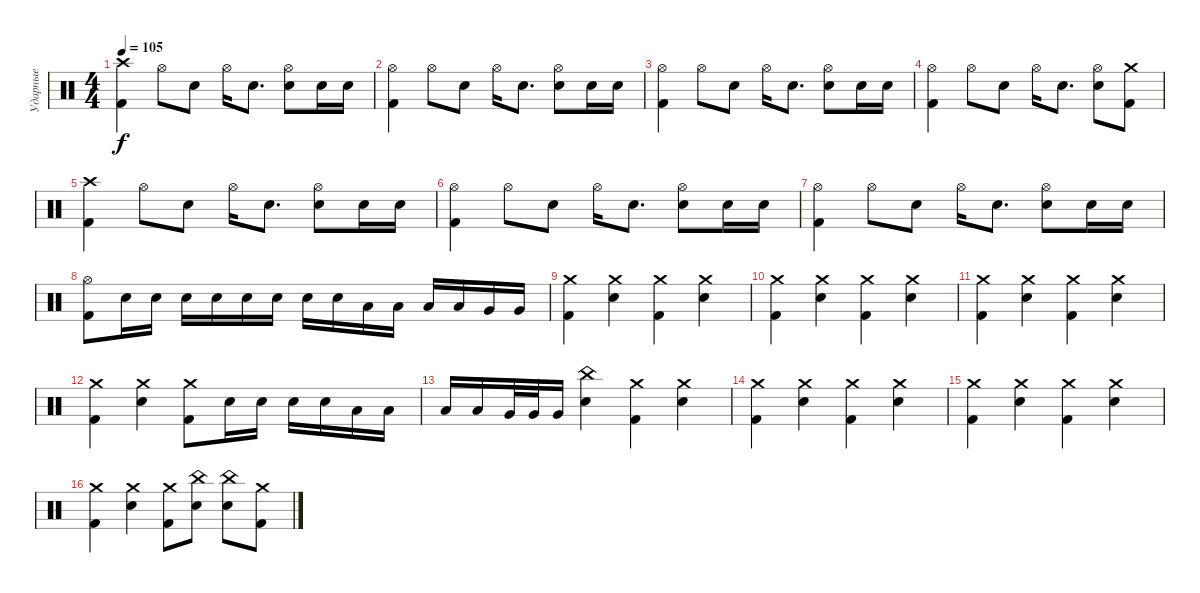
\track ("Ударные" "Ударные") {instrument percussion}
\staff {score}
\articulation defaults
\ts (4 4)
\tempo 105
\clef neutral
\ks c
("Crash high (hit)" "Kick (hit) 2").4{dy f} "Hi-Hat (open)".8 "Electric Snare (hit)".8 "Hi-Hat (open)".16 "Electric Snare (hit)".8{d} ("Hi-Hat (open)" "Electric Snare (hit)").8 "Electric Snare (hit)".16 "Electric Snare (hit)".16 |
("Hi-Hat (open)" "Kick (hit) 2").4 "Hi-Hat (open)".8 "Electric Snare (hit)".8 "Hi-Hat (open)".16 "Electric Snare (hit)".8{d} ("Hi-Hat (open)" "Electric Snare (hit)").8 "Electric Snare (hit)".16 "Electric Snare (hit)".16 |
("Hi-Hat (open)" "Kick (hit) 2").4 "Hi-Hat (open)".8 "Electric Snare (hit)".8 "Hi-Hat (open)".16 "Electric Snare (hit)".8{d} ("Hi-Hat (open)" "Electric Snare (hit)").8 "Electric Snare (hit)".16 "Electric Snare (hit)".16 |
("Hi-Hat (open)" "Kick (hit) 2").4 "Hi-Hat (open)".8 "Electric Snare (hit)".8 "Hi-Hat (open)".16 "Electric Snare (hit)".8{d} ("Hi-Hat (open)" "Electric Snare (hit)").8 ("Crash medium (hit)" "Kick (hit) 2").8 |
("Crash high (hit)" "Kick (hit) 2").4 "Hi-Hat (open)".8 "Electric Snare (hit)".8 "Hi-Hat (open)".16 "Electric Snare (hit)".8{d} ("Hi-Hat (open)" "Electric Snare (hit)").8 "Electric Snare (hit)".16 "Electric Snare (hit)".16 |
("Hi-Hat (open)" "Kick (hit) 2").4 "Hi-Hat (open)".8 "Electric Snare (hit)".8 "Hi-Hat (open)".16 "Electric Snare (hit)".8{d} ("Hi-Hat (open)" "Electric Snare (hit)").8 "Electric Snare (hit)".16 "Electric Snare (hit)".16 |
("Hi-Hat (open)" "Kick (hit) 2").4 "Hi-Hat (open)".8 "Electric Snare (hit)".8 "Hi-Hat (open)".16 "Electric Snare (hit)".8{d} ("Hi-Hat (open)" "Electric Snare (hit)").8 "Electric Snare (hit)".16 "Electric Snare (hit)".16 |
("Hi-Hat (open)" "Kick (hit) 2").8 "Electric Snare (hit)".16 "Electric Snare (hit)".16 "Electric Snare (hit)".16 "Electric Snare (hit)".16 "Electric Snare (hit)".16 "Electric Snare (hit)".16 "Electric Snare (hit)".16 "Electric Snare (hit)".16 "Low Tom (hit)".16 "Low Tom (hit)".16 "Low Tom (hit)".16 "Low Tom (hit)".16 "Very Low Tom (hit)".16 "Very Low Tom (hit)".16 |
("Crash medium (hit)" "Kick (hit) 2").4 ("Crash medium (hit)" "Electric Snare (hit)").4 ("Crash medium (hit)" "Kick (hit) 2").4 ("Crash medium (hit)" "Electric Snare (hit)").4 |
("Crash medium (hit)" "Kick (hit) 2").4 ("Crash medium (hit)" "Electric Snare (hit)").4 ("Crash medium (hit)" "Kick (hit) 2").4 ("Crash medium (hit)" "Electric Snare (hit)").4 |
("Crash medium (hit)" "Kick (hit) 2").4 ("Crash medium (hit)" "Electric Snare (hit)").4 ("Crash medium (hit)" "Kick (hit) 2").4 ("Crash medium (hit)" "Electric Snare (hit)").4 |
("Crash medium (hit)" "Kick (hit) 2").4 ("Crash medium (hit)" "Electric Snare (hit)").4 ("Crash medium (hit)" "Kick (hit) 2").8 "Electric Snare (hit)".16 "Electric Snare (hit)".16 "Electric Snare (hit)".16 "Electric Snare (hit)".16 "Low Tom (hit)".16 "Low Tom (hit)".16 |
"Low Tom (hit)".16 "Low Tom (hit)".16 "Very Low Tom (hit)".32 "Very Low Tom (hit)".32 "Very Low Tom (hit)".16 ("China (hit)" "Electric Snare (hit)").4 ("Crash medium (hit)" "Kick (hit) 2").4 ("Crash medium (hit)" "Electric Snare (hit)").4 |
("Crash medium (hit)" "Kick (hit) 2").4 ("Crash medium (hit)" "Electric Snare (hit)").4 ("Crash medium (hit)" "Kick (hit) 2").4 ("Crash medium (hit)" "Electric Snare (hit)").4 |
("Crash medium (hit)" "Kick (hit) 2").4 ("Crash medium (hit)" "Electric Snare (hit)").4 ("Crash medium (hit)" "Kick (hit) 2").4 ("Crash medium (hit)" "Electric Snare (hit)").4 |
("Crash medium (hit)" "Kick (hit) 2").4 ("Crash medium (hit)" "Electric Snare (hit)").4 ("Crash medium (hit)" "Kick (hit) 2").8 ("China (hit)" "Electric Snare (hit)").8 ("China (hit)" "Electric Snare (hit)").8 ("Crash medium (hit)" "Kick (hit) 2").8
